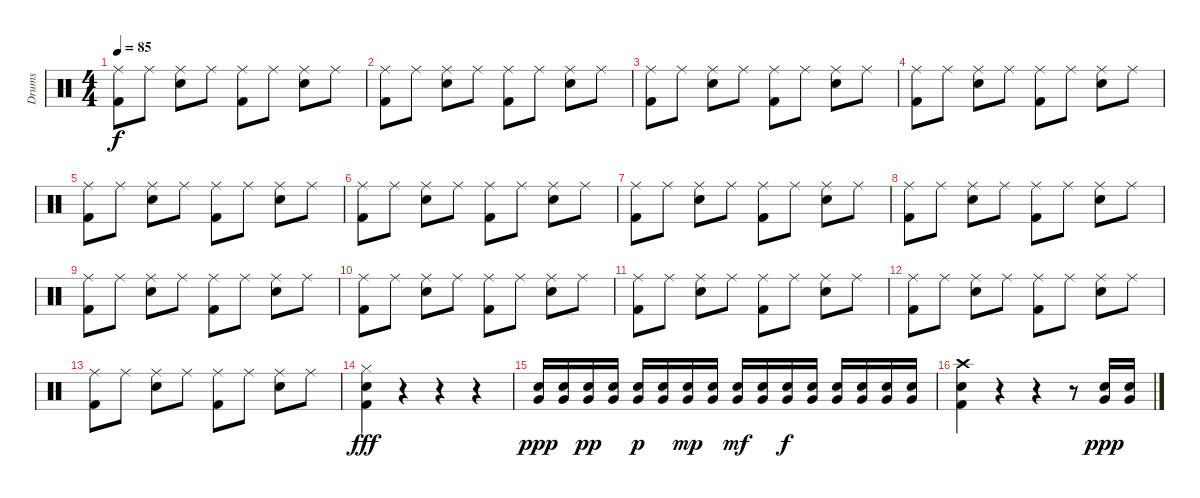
\track ("Drums" "Drums") {instrument percussion}
\staff {score}
\articulation defaults
\ts (4 4)
\tempo 85
\clef neutral
\ks c
("Ride (middle)" "Kick (hit) 2").8{dy f} "Ride (middle)".8 ("Ride (middle)" "Snare (hit) 2").8 "Ride (middle)".8 ("Ride (middle)" "Kick (hit) 2").8 "Ride (middle)".8 ("Ride (middle)" "Snare (hit) 2").8 "Ride (middle)".8 |
("Ride (middle)" "Kick (hit) 2").8 "Ride (middle)".8 ("Ride (middle)" "Snare (hit) 2").8 "Ride (middle)".8 ("Ride (middle)" "Kick (hit) 2").8 "Ride (middle)".8 ("Ride (middle)" "Snare (hit) 2").8 "Ride (middle)".8 |
("Ride (middle)" "Kick (hit) 2").8 "Ride (middle)".8 ("Ride (middle)" "Snare (hit) 2").8 "Ride (middle)".8 ("Ride (middle)" "Kick (hit) 2").8 "Ride (middle)".8 ("Ride (middle)" "Snare (hit) 2").8 "Ride (middle)".8 |
("Ride (middle)" "Kick (hit) 2").8 "Ride (middle)".8 ("Ride (middle)" "Snare (hit) 2").8 "Ride (middle)".8 ("Ride (middle)" "Kick (hit) 2").8 "Ride (middle)".8 ("Ride (middle)" "Snare (hit) 2").8 "Ride (middle)".8 |
("Ride (middle)" "Kick (hit) 2").8 "Ride (middle)".8 ("Ride (middle)" "Snare (hit) 2").8 "Ride (middle)".8 ("Ride (middle)" "Kick (hit) 2").8 "Ride (middle)".8 ("Ride (middle)" "Snare (hit) 2").8 "Ride (middle)".8 |
("Ride (middle)" "Kick (hit) 2").8 "Ride (middle)".8 ("Ride (middle)" "Snare (hit) 2").8 "Ride (middle)".8 ("Ride (middle)" "Kick (hit) 2").8 "Ride (middle)".8 ("Ride (middle)" "Snare (hit) 2").8 "Ride (middle)".8 |
("Ride (middle)" "Kick (hit) 2").8 "Ride (middle)".8 ("Ride (middle)" "Snare (hit) 2").8 "Ride (middle)".8 ("Ride (middle)" "Kick (hit) 2").8 "Ride (middle)".8 ("Ride (middle)" "Snare (hit) 2").8 "Ride (middle)".8 |
("Ride (middle)" "Kick (hit) 2").8 "Ride (middle)".8 ("Ride (middle)" "Snare (hit) 2").8 "Ride (middle)".8 ("Ride (middle)" "Kick (hit) 2").8 "Ride (middle)".8 ("Ride (middle)" "Snare (hit) 2").8 "Ride (middle)".8 |
("Ride (middle)" "Kick (hit) 2").8 "Ride (middle)".8 ("Ride (middle)" "Snare (hit) 2").8 "Ride (middle)".8 ("Ride (middle)" "Kick (hit) 2").8 "Ride (middle)".8 ("Ride (middle)" "Snare (hit) 2").8 "Ride (middle)".8 |
("Ride (middle)" "Kick (hit) 2").8 "Ride (middle)".8 ("Ride (middle)" "Snare (hit) 2").8 "Ride (middle)".8 ("Ride (middle)" "Kick (hit) 2").8 "Ride (middle)".8 ("Ride (middle)" "Snare (hit) 2").8 "Ride (middle)".8 |
("Ride (middle)" "Kick (hit) 2").8 "Ride (middle)".8 ("Ride (middle)" "Snare (hit) 2").8 "Ride (middle)".8 ("Ride (middle)" "Kick (hit) 2").8 "Ride (middle)".8 ("Ride (middle)" "Snare (hit) 2").8 "Ride (middle)".8 |
("Ride (middle)" "Kick (hit) 2").8 "Ride (middle)".8 ("Ride (middle)" "Snare (hit) 2").8 "Ride (middle)".8 ("Ride (middle)" "Kick (hit) 2").8 "Ride (middle)".8 ("Ride (middle)" "Snare (hit) 2").8 "Ride (middle)".8 |
("Ride (middle)" "Kick (hit) 2").8 "Ride (middle)".8 ("Ride (middle)" "Snare (hit) 2").8 "Ride (middle)".8 ("Ride (middle)" "Kick (hit) 2").8 "Ride (middle)".8 ("Ride (middle)" "Snare (hit) 2").8 "Ride (middle)".8 |
("Hi-Hat (closed)" "Snare (hit) 2" "Kick (hit) 2").4{dy fff} r.4 r.4 r.4 |
("Very Low Tom (hit)" "Snare (hit) 2").16{dy ppp} ("Very Low Tom (hit)" "Snare (hit) 2").16 ("Very Low Tom (hit)" "Snare (hit) 2").16{dy pp} ("Very Low Tom (hit)" "Snare (hit) 2").16 ("Very Low Tom (hit)" "Snare (hit) 2").16{dy p} ("Very Low Tom (hit)" "Snare (hit) 2").16 ("Very Low Tom (hit)" "Snare (hit) 2").16{dy mp} ("Very Low Tom (hit)" "Snare (hit) 2").16 ("Very Low Tom (hit)" "Snare (hit) 2").16{dy mf} ("Very Low Tom (hit)" "Snare (hit) 2").16 ("Very Low Tom (hit)" "Snare (hit) 2").16{dy f} ("Very Low Tom (hit)" "Snare (hit) 2").16 ("Very Low Tom (hit)" "Snare (hit) 2").16 ("Very Low Tom (hit)" "Snare (hit) 2").16 ("Very Low Tom (hit)" "Snare (hit) 2").16 ("Very Low Tom (hit)" "Snare (hit) 2").16 |
("Crash high (hit)" "Snare (hit) 2" "Kick (hit) 2").4 r.4 r.4 r.8 ("Very Low Tom (hit)" "Snare (hit) 2").16{dy ppp} ("Very Low Tom (hit)" "Snare (hit) 2").16
